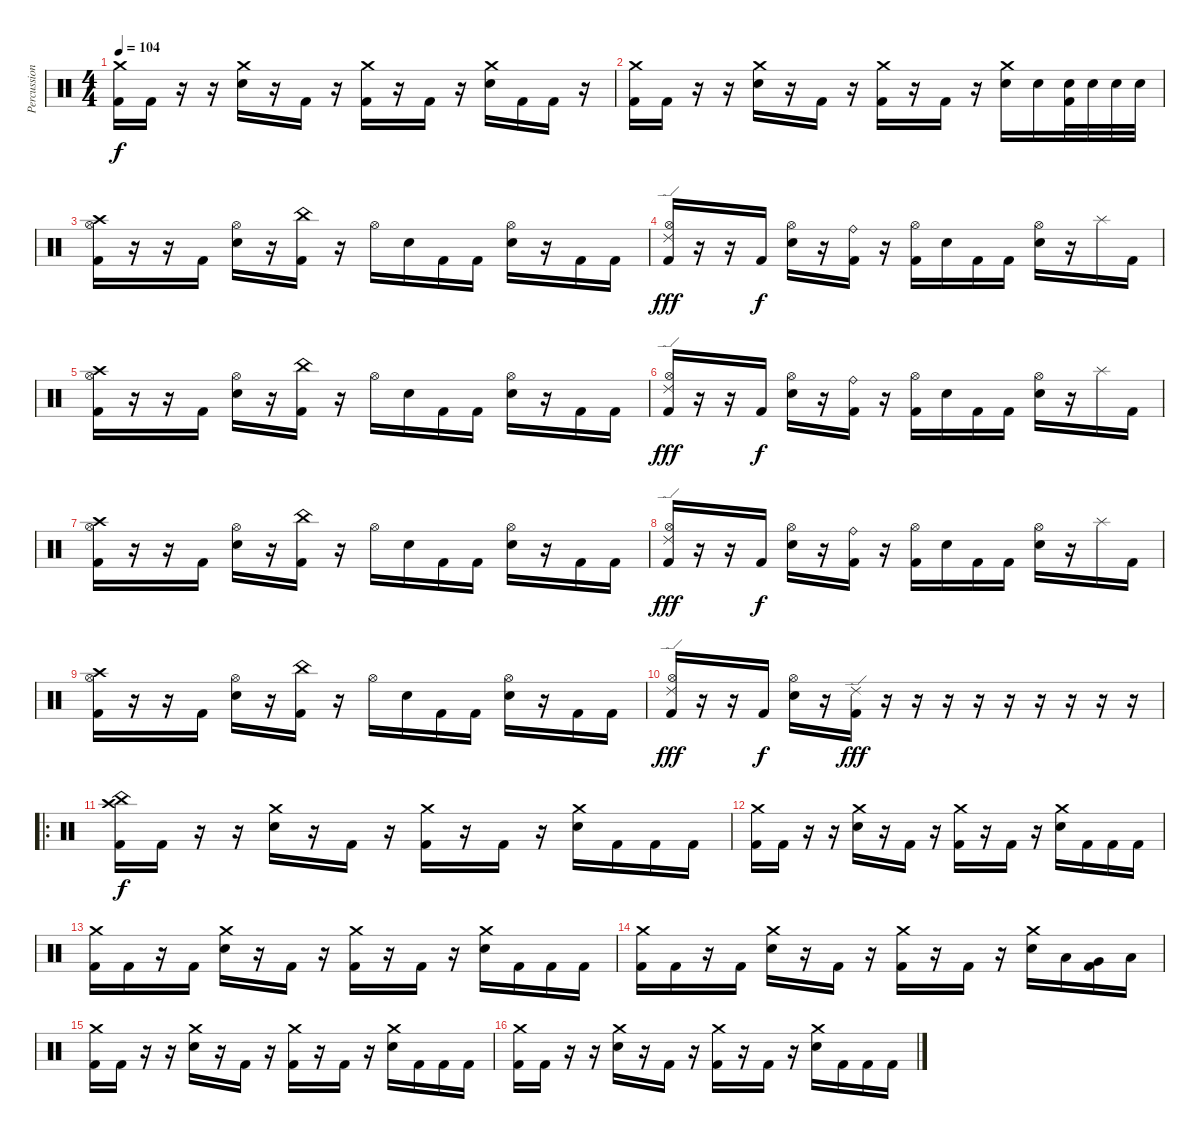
\track ("Percussion" "Percussion") {instrument percussion}
\staff {score}
\articulation defaults
\ts (4 4)
\tempo 104
\clef neutral
\ks c
("Crash medium (hit)" "Kick (hit) 2").16{dy f} "Kick (hit) 2".16 r.16 r.16 ("Crash medium (hit)" "Electric Snare (hit)").16 r.16 "Kick (hit) 2".16 r.16 ("Crash medium (hit)" "Kick (hit) 2").16 r.16 "Kick (hit) 2".16 r.16 ("Crash medium (hit)" "Electric Snare (hit)").16 "Kick (hit) 2".16 "Kick (hit) 2".16 r.16 |
("Crash medium (hit)" "Kick (hit) 2").16 "Kick (hit) 2".16 r.16 r.16 ("Crash medium (hit)" "Electric Snare (hit)").16 r.16 "Kick (hit) 2".16 r.16 ("Crash medium (hit)" "Kick (hit) 2").16 r.16 "Kick (hit) 2".16 r.16 ("Crash medium (hit)" "Electric Snare (hit)").16 "Electric Snare (hit)".16 ("Electric Snare (hit)" "Kick (hit) 2").32 "Electric Snare (hit)".32 "Electric Snare (hit)".32 "Electric Snare (hit)".32 |
("Crash high (hit)" "Hi-Hat (open)" "Kick (hit) 2").16 r.16 r.16 "Kick (hit) 2".16 ("Hi-Hat (open)" "Electric Snare (hit)").16 r.16 ("China (hit)" "Kick (hit) 2").16 r.16 "Hi-Hat (open)".16 "Electric Snare (hit)".16 "Kick (hit) 2".16 "Kick (hit) 2".16 ("Hi-Hat (open)" "Electric Snare (hit)").16 r.16 "Kick (hit) 2".16 "Kick (hit) 2".16 |
("Ride (edge) 2" "Hi-Hat (open)" "Kick (hit) 2").16{dy fff} r.16 r.16 "Kick (hit) 2".16{dy f} ("Hi-Hat (open)" "Electric Snare (hit)").16 r.16 ("Ride (bell)" "Kick (hit) 2").16 r.16 ("Hi-Hat (open)" "Kick (hit) 2").16 "Electric Snare (hit)".16 "Kick (hit) 2".16 "Kick (hit) 2".16 ("Hi-Hat (open)" "Electric Snare (hit)").16 r.16 "Splash (hit)".16 "Kick (hit) 2".16 |
("Crash high (hit)" "Hi-Hat (open)" "Kick (hit) 2").16 r.16 r.16 "Kick (hit) 2".16 ("Hi-Hat (open)" "Electric Snare (hit)").16 r.16 ("China (hit)" "Kick (hit) 2").16 r.16 "Hi-Hat (open)".16 "Electric Snare (hit)".16 "Kick (hit) 2".16 "Kick (hit) 2".16 ("Hi-Hat (open)" "Electric Snare (hit)").16 r.16 "Kick (hit) 2".16 "Kick (hit) 2".16 |
("Ride (edge) 2" "Hi-Hat (open)" "Kick (hit) 2").16{dy fff} r.16 r.16 "Kick (hit) 2".16{dy f} ("Hi-Hat (open)" "Electric Snare (hit)").16 r.16 ("Ride (bell)" "Kick (hit) 2").16 r.16 ("Hi-Hat (open)" "Kick (hit) 2").16 "Electric Snare (hit)".16 "Kick (hit) 2".16 "Kick (hit) 2".16 ("Hi-Hat (open)" "Electric Snare (hit)").16 r.16 "Splash (hit)".16 "Kick (hit) 2".16 |
("Crash high (hit)" "Hi-Hat (open)" "Kick (hit) 2").16 r.16 r.16 "Kick (hit) 2".16 ("Hi-Hat (open)" "Electric Snare (hit)").16 r.16 ("China (hit)" "Kick (hit) 2").16 r.16 "Hi-Hat (open)".16 "Electric Snare (hit)".16 "Kick (hit) 2".16 "Kick (hit) 2".16 ("Hi-Hat (open)" "Electric Snare (hit)").16 r.16 "Kick (hit) 2".16 "Kick (hit) 2".16 |
("Ride (edge) 2" "Hi-Hat (open)" "Kick (hit) 2").16{dy fff} r.16 r.16 "Kick (hit) 2".16{dy f} ("Hi-Hat (open)" "Electric Snare (hit)").16 r.16 ("Ride (bell)" "Kick (hit) 2").16 r.16 ("Hi-Hat (open)" "Kick (hit) 2").16 "Electric Snare (hit)".16 "Kick (hit) 2".16 "Kick (hit) 2".16 ("Hi-Hat (open)" "Electric Snare (hit)").16 r.16 "Splash (hit)".16 "Kick (hit) 2".16 |
("Crash high (hit)" "Hi-Hat (open)" "Kick (hit) 2").16 r.16 r.16 "Kick (hit) 2".16 ("Hi-Hat (open)" "Electric Snare (hit)").16 r.16 ("China (hit)" "Kick (hit) 2").16 r.16 "Hi-Hat (open)".16 "Electric Snare (hit)".16 "Kick (hit) 2".16 "Kick (hit) 2".16 ("Hi-Hat (open)" "Electric Snare (hit)").16 r.16 "Kick (hit) 2".16 "Kick (hit) 2".16 |
("Ride (edge) 2" "Hi-Hat (open)" "Kick (hit) 2").16{dy fff} r.16 r.16 "Kick (hit) 2".16{dy f} ("Hi-Hat (open)" "Electric Snare (hit)").16 r.16 ("Ride (edge) 2" "Kick (hit) 2").16{dy fff} r.16 r.16 r.16 r.16 r.16 r.16 r.16 r.16 r.16 |
\ro
("China (hit)" "Crash high (hit)" "Kick (hit) 2").16{dy f} "Kick (hit) 2".16 r.16 r.16 ("Crash medium (hit)" "Electric Snare (hit)").16 r.16 "Kick (hit) 2".16 r.16 ("Crash medium (hit)" "Kick (hit) 2").16 r.16 "Kick (hit) 2".16 r.16 ("Crash medium (hit)" "Electric Snare (hit)").16 "Kick (hit) 2".16 "Kick (hit) 2".16 "Kick (hit) 2".16 |
("Crash medium (hit)" "Kick (hit) 2").16 "Kick (hit) 2".16 r.16 r.16 ("Crash medium (hit)" "Electric Snare (hit)").16 r.16 "Kick (hit) 2".16 r.16 ("Crash medium (hit)" "Kick (hit) 2").16 r.16 "Kick (hit) 2".16 r.16 ("Crash medium (hit)" "Electric Snare (hit)").16 "Kick (hit) 2".16 "Kick (hit) 2".16 "Kick (hit) 2".16 |
("Crash medium (hit)" "Kick (hit) 2").16 "Kick (hit) 2".16 r.16 "Kick (hit) 2".16 ("Crash medium (hit)" "Electric Snare (hit)").16 r.16 "Kick (hit) 2".16 r.16 ("Crash medium (hit)" "Kick (hit) 2").16 r.16 "Kick (hit) 2".16 r.16 ("Crash medium (hit)" "Electric Snare (hit)").16 "Kick (hit) 2".16 "Kick (hit) 2".16 "Kick (hit) 2".16 |
("Crash medium (hit)" "Kick (hit) 2").16 "Kick (hit) 2".16 r.16 "Kick (hit) 2".16 ("Crash medium (hit)" "Electric Snare (hit)").16 r.16 "Kick (hit) 2".16 r.16 ("Crash medium (hit)" "Kick (hit) 2").16 r.16 "Kick (hit) 2".16 r.16 ("Crash medium (hit)" "Electric Snare (hit)").16 "Low Tom (hit)".16 ("Very Low Tom (hit)" "Kick (hit) 2").16 "Low Floor Tom (hit)".16 |
("Crash medium (hit)" "Kick (hit) 2").16 "Kick (hit) 2".16 r.16 r.16 ("Crash medium (hit)" "Electric Snare (hit)").16 r.16 "Kick (hit) 2".16 r.16 ("Crash medium (hit)" "Kick (hit) 2").16 r.16 "Kick (hit) 2".16 r.16 ("Crash medium (hit)" "Electric Snare (hit)").16 "Kick (hit) 2".16 "Kick (hit) 2".16 "Kick (hit) 2".16 |
("Crash medium (hit)" "Kick (hit) 2").16 "Kick (hit) 2".16 r.16 r.16 ("Crash medium (hit)" "Electric Snare (hit)").16 r.16 "Kick (hit) 2".16 r.16 ("Crash medium (hit)" "Kick (hit) 2").16 r.16 "Kick (hit) 2".16 r.16 ("Crash medium (hit)" "Electric Snare (hit)").16 "Kick (hit) 2".16 "Kick (hit) 2".16 "Kick (hit) 2".16
